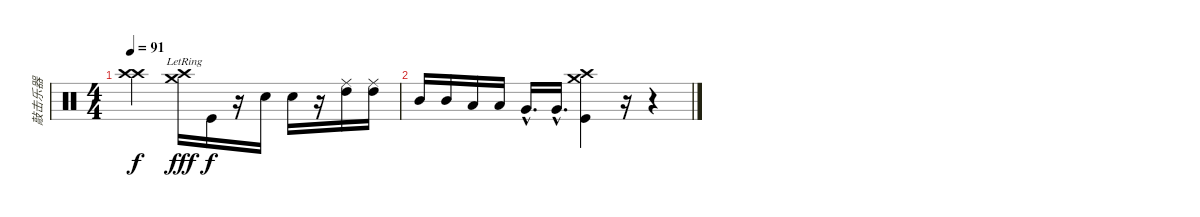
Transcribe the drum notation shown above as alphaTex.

\track ("敲击乐器" "敲击乐器") {instrument percussion}
\staff {score}
\articulation defaults
\ts (4 4)
\tempo 91
\clef neutral
\ks c
("Crash high (hit)" "Crash high (hit)").2{dy f} ("Crash high (hit)" "Crash medium (hit)"{lr}).16{dy fff} "Kick (hit)".16{dy f} r.16 "Electric Snare (hit)".16 "Electric Snare (hit)".16 r.16 ("High Tom (hit)" "Ride (middle)").16 ("High Tom (hit)" "Ride (middle)").16 |
"Mid Tom (hit)".16 "Mid Tom (hit)".16 "Low Tom (hit)".16 "Low Tom (hit)".16 "Very Low Tom (hit)"{hac}.16{d} "Very Low Tom (hit)"{hac}.16{d} ("Kick (hit)" "Crash high (hit)" "Crash medium (hit)").4 r.16 r.4
